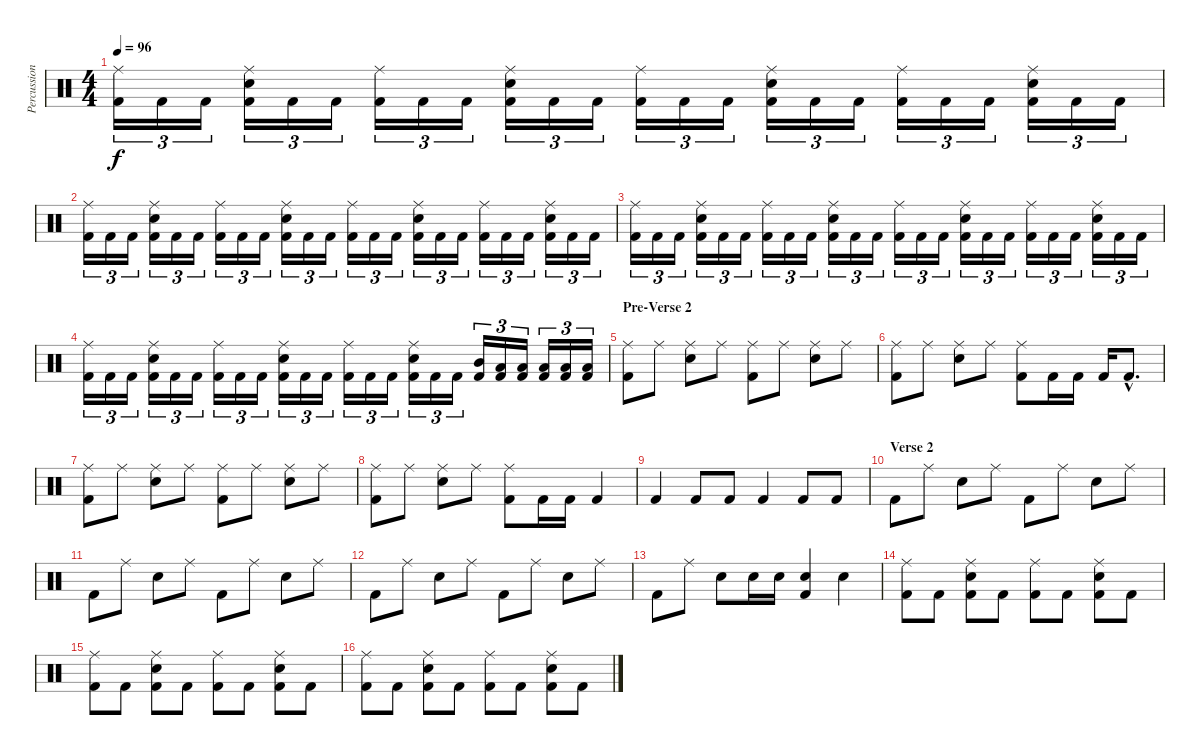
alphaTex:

\track ("Percussion" "Percussion") {instrument percussion}
\staff {score}
\articulation defaults
\ts (4 4)
\tempo 96
\clef neutral
\ks c
("Ride (middle)" "Kick (hit) 2").16{tu (3 2) dy f} "Kick (hit) 2".16{tu (3 2)} "Kick (hit) 2".16{tu (3 2)} ("Ride (middle)" "Snare (hit) 2" "Kick (hit) 2").16{tu (3 2)} "Kick (hit) 2".16{tu (3 2)} "Kick (hit) 2".16{tu (3 2)} ("Ride (middle)" "Kick (hit) 2").16{tu (3 2)} "Kick (hit) 2".16{tu (3 2)} "Kick (hit) 2".16{tu (3 2)} ("Ride (middle)" "Snare (hit) 2" "Kick (hit) 2").16{tu (3 2)} "Kick (hit) 2".16{tu (3 2)} "Kick (hit) 2".16{tu (3 2)} ("Ride (middle)" "Kick (hit) 2").16{tu (3 2)} "Kick (hit) 2".16{tu (3 2)} "Kick (hit) 2".16{tu (3 2)} ("Ride (middle)" "Snare (hit) 2" "Kick (hit) 2").16{tu (3 2)} "Kick (hit) 2".16{tu (3 2)} "Kick (hit) 2".16{tu (3 2)} ("Ride (middle)" "Kick (hit) 2").16{tu (3 2)} "Kick (hit) 2".16{tu (3 2)} "Kick (hit) 2".16{tu (3 2)} ("Ride (middle)" "Snare (hit) 2" "Kick (hit) 2").16{tu (3 2)} "Kick (hit) 2".16{tu (3 2)} "Kick (hit) 2".16{tu (3 2)} |
("Ride (middle)" "Kick (hit) 2").16{tu (3 2)} "Kick (hit) 2".16{tu (3 2)} "Kick (hit) 2".16{tu (3 2)} ("Ride (middle)" "Snare (hit) 2" "Kick (hit) 2").16{tu (3 2)} "Kick (hit) 2".16{tu (3 2)} "Kick (hit) 2".16{tu (3 2)} ("Ride (middle)" "Kick (hit) 2").16{tu (3 2)} "Kick (hit) 2".16{tu (3 2)} "Kick (hit) 2".16{tu (3 2)} ("Ride (middle)" "Snare (hit) 2" "Kick (hit) 2").16{tu (3 2)} "Kick (hit) 2".16{tu (3 2)} "Kick (hit) 2".16{tu (3 2)} ("Ride (middle)" "Kick (hit) 2").16{tu (3 2)} "Kick (hit) 2".16{tu (3 2)} "Kick (hit) 2".16{tu (3 2)} ("Ride (middle)" "Snare (hit) 2" "Kick (hit) 2").16{tu (3 2)} "Kick (hit) 2".16{tu (3 2)} "Kick (hit) 2".16{tu (3 2)} ("Ride (middle)" "Kick (hit) 2").16{tu (3 2)} "Kick (hit) 2".16{tu (3 2)} "Kick (hit) 2".16{tu (3 2)} ("Ride (middle)" "Snare (hit) 2" "Kick (hit) 2").16{tu (3 2)} "Kick (hit) 2".16{tu (3 2)} "Kick (hit) 2".16{tu (3 2)} |
("Ride (middle)" "Kick (hit) 2").16{tu (3 2)} "Kick (hit) 2".16{tu (3 2)} "Kick (hit) 2".16{tu (3 2)} ("Ride (middle)" "Snare (hit) 2" "Kick (hit) 2").16{tu (3 2)} "Kick (hit) 2".16{tu (3 2)} "Kick (hit) 2".16{tu (3 2)} ("Ride (middle)" "Kick (hit) 2").16{tu (3 2)} "Kick (hit) 2".16{tu (3 2)} "Kick (hit) 2".16{tu (3 2)} ("Ride (middle)" "Snare (hit) 2" "Kick (hit) 2").16{tu (3 2)} "Kick (hit) 2".16{tu (3 2)} "Kick (hit) 2".16{tu (3 2)} ("Ride (middle)" "Kick (hit) 2").16{tu (3 2)} "Kick (hit) 2".16{tu (3 2)} "Kick (hit) 2".16{tu (3 2)} ("Ride (middle)" "Snare (hit) 2" "Kick (hit) 2").16{tu (3 2)} "Kick (hit) 2".16{tu (3 2)} "Kick (hit) 2".16{tu (3 2)} ("Ride (middle)" "Kick (hit) 2").16{tu (3 2)} "Kick (hit) 2".16{tu (3 2)} "Kick (hit) 2".16{tu (3 2)} ("Ride (middle)" "Snare (hit) 2" "Kick (hit) 2").16{tu (3 2)} "Kick (hit) 2".16{tu (3 2)} "Kick (hit) 2".16{tu (3 2)} |
("Ride (middle)" "Kick (hit) 2").16{tu (3 2)} "Kick (hit) 2".16{tu (3 2)} "Kick (hit) 2".16{tu (3 2)} ("Ride (middle)" "Snare (hit) 2" "Kick (hit) 2").16{tu (3 2)} "Kick (hit) 2".16{tu (3 2)} "Kick (hit) 2".16{tu (3 2)} ("Ride (middle)" "Kick (hit) 2").16{tu (3 2)} "Kick (hit) 2".16{tu (3 2)} "Kick (hit) 2".16{tu (3 2)} ("Ride (middle)" "Snare (hit) 2" "Kick (hit) 2").16{tu (3 2)} "Kick (hit) 2".16{tu (3 2)} "Kick (hit) 2".16{tu (3 2)} ("Ride (middle)" "Kick (hit) 2").16{tu (3 2)} "Kick (hit) 2".16{tu (3 2)} "Kick (hit) 2".16{tu (3 2)} ("Ride (middle)" "Snare (hit) 2" "Kick (hit) 2").16{tu (3 2)} "Kick (hit) 2".16{tu (3 2)} "Kick (hit) 2".16{tu (3 2)} ("Mid Tom (hit)" "Kick (hit) 2").16{tu (3 2)} ("Low Tom (hit)" "Kick (hit) 2").16{tu (3 2)} ("Low Floor Tom (hit)" "Kick (hit) 2").16{tu (3 2)} ("Low Floor Tom (hit)" "Kick (hit) 2").16{tu (3 2)} ("Low Tom (hit)" "Kick (hit) 2").16{tu (3 2)} ("Low Floor Tom (hit)" "Kick (hit) 2").16{tu (3 2)} |
\section ("" "Pre-Verse 2")
("Ride (middle)" "Kick (hit) 2").8 "Ride (middle)".8 ("Ride (middle)" "Snare (hit) 2").8 "Ride (middle)".8 ("Ride (middle)" "Kick (hit) 2").8 "Ride (middle)".8 ("Ride (middle)" "Snare (hit) 2").8 "Ride (middle)".8 |
("Ride (middle)" "Kick (hit) 2").8 "Ride (middle)".8 ("Ride (middle)" "Snare (hit) 2").8 "Ride (middle)".8 ("Ride (middle)" "Kick (hit) 2").8 "Kick (hit) 2".16 "Kick (hit) 2".16 "Kick (hit) 2".16 "Kick (hit) 2"{hac}.8{d} |
("Ride (middle)" "Kick (hit) 2").8 "Ride (middle)".8 ("Ride (middle)" "Snare (hit) 2").8 "Ride (middle)".8 ("Ride (middle)" "Kick (hit) 2").8 "Ride (middle)".8 ("Ride (middle)" "Snare (hit) 2").8 "Ride (middle)".8 |
("Ride (middle)" "Kick (hit) 2").8 "Ride (middle)".8 ("Ride (middle)" "Snare (hit) 2").8 "Ride (middle)".8 ("Ride (middle)" "Kick (hit) 2").8 "Kick (hit) 2".16 "Kick (hit) 2".16 "Kick (hit) 2".4 |
"Kick (hit) 2".4 "Kick (hit) 2".8 "Kick (hit) 2".8 "Kick (hit) 2".4 "Kick (hit) 2".8 "Kick (hit) 2".8 |
\section ("" "Verse 2")
"Kick (hit) 2".8 "Ride (middle)".8 "Snare (hit) 2".8 "Ride (middle)".8 "Kick (hit) 2".8 "Ride (middle)".8 "Snare (hit) 2".8 "Ride (middle)".8 |
"Kick (hit) 2".8 "Ride (middle)".8 "Snare (hit) 2".8 "Ride (middle)".8 "Kick (hit) 2".8 "Ride (middle)".8 "Snare (hit) 2".8 "Ride (middle)".8 |
"Kick (hit) 2".8 "Ride (middle)".8 "Snare (hit) 2".8 "Ride (middle)".8 "Kick (hit) 2".8 "Ride (middle)".8 "Snare (hit) 2".8 "Ride (middle)".8 |
"Kick (hit) 2".8 "Ride (middle)".8 "Snare (hit) 2".8 "Snare (hit) 2".16 "Snare (hit) 2".16 ("Snare (hit) 2" "Kick (hit) 2").4 "Snare (hit) 2".4 |
("Ride (middle)" "Kick (hit) 2").8 "Kick (hit) 2".8 ("Snare (hit) 2" "Ride (middle)" "Kick (hit) 2").8 "Kick (hit) 2".8 ("Ride (middle)" "Kick (hit) 2").8 "Kick (hit) 2".8 ("Snare (hit) 2" "Ride (middle)" "Kick (hit) 2").8 "Kick (hit) 2".8 |
("Ride (middle)" "Kick (hit) 2").8 "Kick (hit) 2".8 ("Snare (hit) 2" "Ride (middle)" "Kick (hit) 2").8 "Kick (hit) 2".8 ("Ride (middle)" "Kick (hit) 2").8 "Kick (hit) 2".8 ("Snare (hit) 2" "Ride (middle)" "Kick (hit) 2").8 "Kick (hit) 2".8 |
("Ride (middle)" "Kick (hit) 2").8 "Kick (hit) 2".8 ("Snare (hit) 2" "Ride (middle)" "Kick (hit) 2").8 "Kick (hit) 2".8 ("Ride (middle)" "Kick (hit) 2").8 "Kick (hit) 2".8 ("Snare (hit) 2" "Ride (middle)" "Kick (hit) 2").8 "Kick (hit) 2".8
